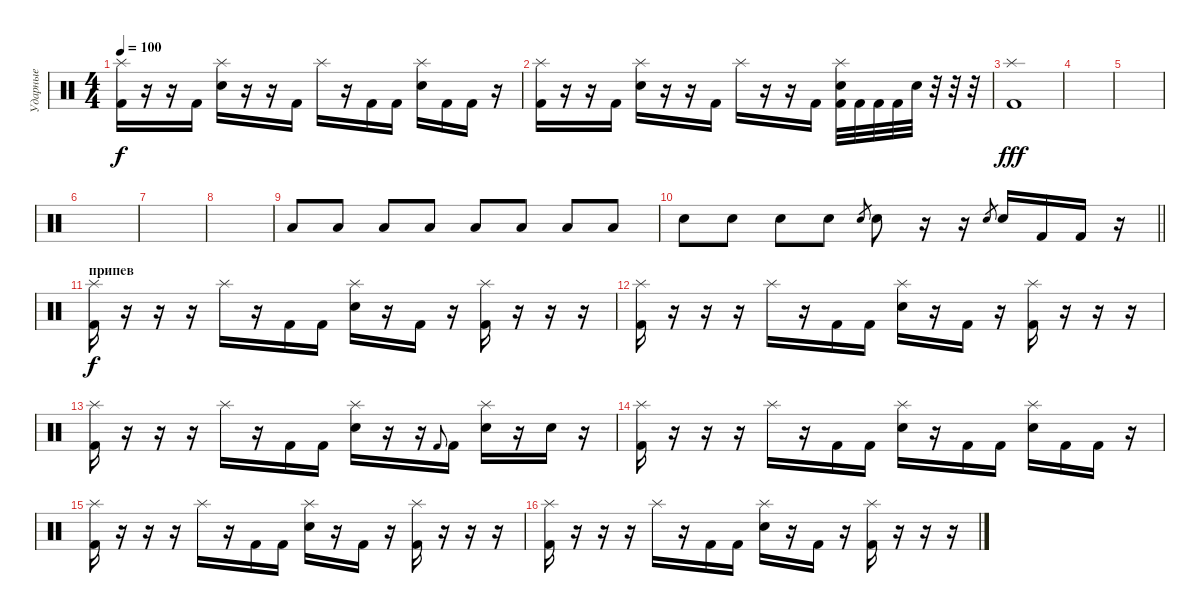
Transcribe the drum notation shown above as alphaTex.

\track ("Ударные" "Ударные") {instrument percussion}
\staff {score}
\articulation defaults
\ts (4 4)
\tempo 100
\clef neutral
\ks c
("Splash (hit)" "Kick (hit) 2").16{dy f} r.16 r.16 "Kick (hit) 2".16 ("Splash (hit)" "Electric Snare (hit)").16 r.16 r.16 "Kick (hit) 2".16 "Splash (hit)".16 r.16 "Kick (hit) 2".16 "Kick (hit) 2".16 ("Splash (hit)" "Electric Snare (hit)").16 "Kick (hit) 2".16 "Kick (hit) 2".16 r.16 |
("Splash (hit)" "Kick (hit) 2").16 r.16 r.16 "Kick (hit) 2".16 ("Splash (hit)" "Electric Snare (hit)").16 r.16 r.16 "Kick (hit) 2".16 "Splash (hit)".16 r.16 r.16 "Kick (hit) 2".16 ("Splash (hit)" "Electric Snare (hit)" "Kick (hit) 2").32 "Kick (hit) 2".32 "Kick (hit) 2".32 "Kick (hit) 2".32 "Electric Snare (hit)".32 r.32 r.32 r.32 |
("Splash (hit)" "Kick (hit) 2").1{dy fff} |
|
|
|
|
|
"Low Floor Tom (hit)".8 "Low Floor Tom (hit)".8 "Low Floor Tom (hit)".8 "Low Floor Tom (hit)".8 "Low Floor Tom (hit)".8 "Low Floor Tom (hit)".8 "Low Floor Tom (hit)".8 "Low Floor Tom (hit)".8 |
\barLineRight lightlight "Electric Snare (hit)".8 "Electric Snare (hit)".8 "Electric Snare (hit)".8 "Electric Snare (hit)".8 "Electric Snare (hit)".8{gr} "Electric Snare (hit)".8
r.16 r.16 "Electric Snare (hit)".8{gr} "Electric Snare (hit)".16 "Kick (hit) 2".16 "Kick (hit) 2".16 r.16 |
\section ("" "припев")
("Splash (hit)" "Kick (hit) 2").16{dy f} r.16 r.16 r.16 "Splash (hit)".16 r.16 "Kick (hit) 2".16 "Kick (hit) 2".16 ("Splash (hit)" "Electric Snare (hit)").16 r.16 "Kick (hit) 2".16 r.16 ("Splash (hit)" "Kick (hit) 2").16 r.16 r.16 r.16 |
("Splash (hit)" "Kick (hit) 2").16 r.16 r.16 r.16 "Splash (hit)".16 r.16 "Kick (hit) 2".16 "Kick (hit) 2".16 ("Splash (hit)" "Electric Snare (hit)").16 r.16 "Kick (hit) 2".16 r.16 ("Splash (hit)" "Kick (hit) 2").16 r.16 r.16 r.16 |
("Splash (hit)" "Kick (hit) 2").16 r.16 r.16 r.16 "Splash (hit)".16 r.16 "Kick (hit) 2".16 "Kick (hit) 2".16 ("Splash (hit)" "Electric Snare (hit)").16 r.16 r.16 "Kick (hit) 2".8{gr onbeat} "Kick (hit) 2".16 ("Splash (hit)" "Electric Snare (hit)").16 r.16 "Electric Snare (hit)".16 r.16 |
("Splash (hit)" "Kick (hit) 2").16 r.16 r.16 r.16 "Splash (hit)".16 r.16 "Kick (hit) 2".16 "Kick (hit) 2".16 ("Splash (hit)" "Electric Snare (hit)").16 r.16 "Kick (hit) 2".16 "Kick (hit) 2".16 ("Splash (hit)" "Electric Snare (hit)").16 "Kick (hit) 2".16 "Kick (hit) 2".16 r.16 |
("Splash (hit)" "Kick (hit) 2").16 r.16 r.16 r.16 "Splash (hit)".16 r.16 "Kick (hit) 2".16 "Kick (hit) 2".16 ("Splash (hit)" "Electric Snare (hit)").16 r.16 "Kick (hit) 2".16 r.16 ("Splash (hit)" "Kick (hit) 2").16 r.16 r.16 r.16 |
("Splash (hit)" "Kick (hit) 2").16 r.16 r.16 r.16 "Splash (hit)".16 r.16 "Kick (hit) 2".16 "Kick (hit) 2".16 ("Splash (hit)" "Electric Snare (hit)").16 r.16 "Kick (hit) 2".16 r.16 ("Splash (hit)" "Kick (hit) 2").16 r.16 r.16 r.16
